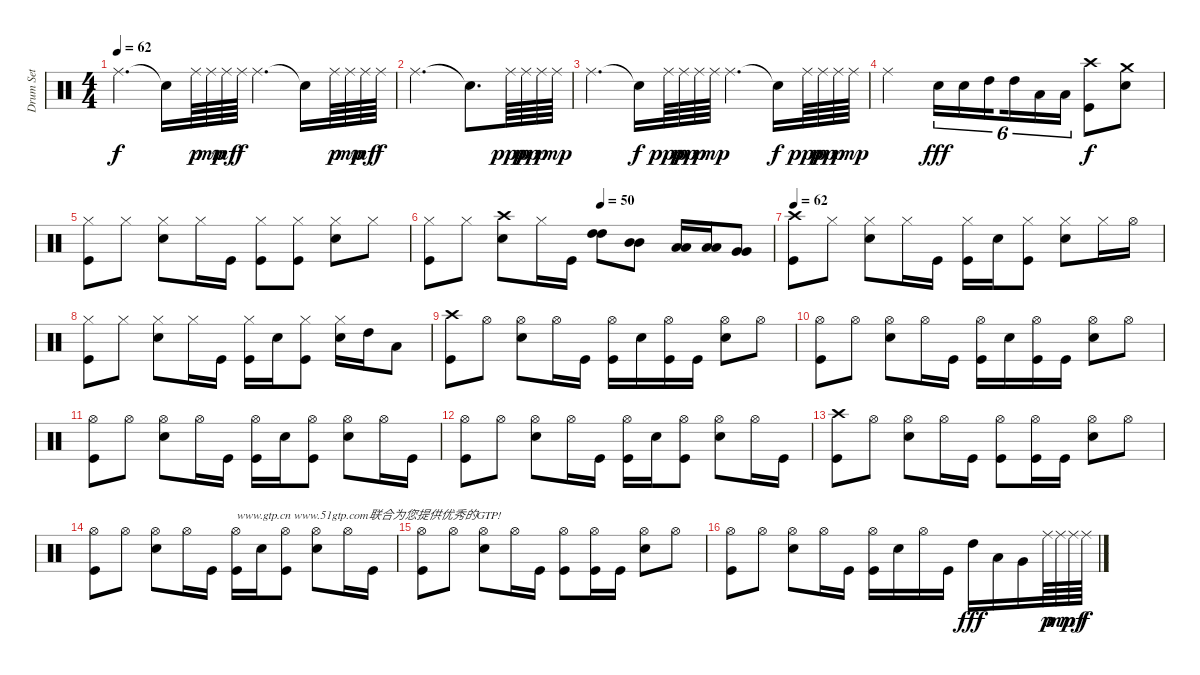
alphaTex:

\track ("Drum Set" "Drum Set") {instrument percussion}
\staff {score}
\articulation defaults
\ts (4 4)
\tempo 62
\clef neutral
\ks c "Ride (middle)".4{d dy f} "Snare (hit)"{t}.16 "Ride (middle)".64{dy p} "Ride (middle)".64{dy mp} "Ride (middle)".64{dy mf} "Ride (middle)".64{dy f} "Ride (middle)".4{d} "Snare (hit)"{t}.16 "Ride (middle)".64{dy p} "Ride (middle)".64{dy mp} "Ride (middle)".64{dy mf} "Ride (middle)".64{dy f}
|
"Ride (middle)".2{d} "Snare (hit)"{t}.8{d} "Ride (middle)".64{dy ppp} "Ride (middle)".64{dy pp} "Ride (middle)".64{dy p} "Ride (middle)".64{dy mp} |
"Ride (middle)".4{d} "Snare (hit)"{t}.16{dy f} "Ride (middle)".64{dy ppp} "Ride (middle)".64{dy pp} "Ride (middle)".64{dy p} "Ride (middle)".64{dy mp} "Ride (middle)".4{d} "Snare (hit)"{t}.16{dy f} "Ride (middle)".64{dy ppp} "Ride (middle)".64{dy pp} "Ride (middle)".64{dy p} "Ride (middle)".64{dy mp} |
"Ride (middle)".2 "Electric Snare (hit)".16{tu (6 4) dy fff} "Electric Snare (hit)".16{tu (6 4)} "High Tom (hit)".16{tu (6 4) beam splitsecondary} "High Tom (hit)".16{tu (6 4)} "Low Tom (hit)".16{tu (6 4)} "Low Tom (hit)".16{tu (6 4)} ("Crash high (hit)" "Kick (hit)").8{dy f} ("Crash medium (hit)" "Electric Snare (hit)").8 |
("Hi-Hat (closed)" "Kick (hit)").8 "Hi-Hat (closed)".8 ("Hi-Hat (closed)" "Electric Snare (hit)").8 "Hi-Hat (closed)".16 "Kick (hit)".16 ("Hi-Hat (closed)" "Kick (hit)").8 ("Hi-Hat (closed)" "Kick (hit)").8 ("Hi-Hat (closed)" "Electric Snare (hit)").8 "Hi-Hat (closed)".8 |
\tempo (50 0.5)
("Hi-Hat (closed)" "Kick (hit)").8 "Hi-Hat (closed)".8 ("Crash high (hit)" "Electric Snare (hit)").8 "Hi-Hat (closed)".16 "Kick (hit)".16 ("High Tom (hit)" "High Tom (hit)").8 ("Mid Tom (hit)" "Mid Tom (hit)").8 ("Low Tom (hit)" "Low Tom (hit)").16 ("Low Tom (hit)" "Low Tom (hit)").16 ("Very Low Tom (hit)" "Very Low Tom (hit)").8 |
\tempo 62
("Crash high (hit)" "Kick (hit)").8 "Hi-Hat (closed)".8 ("Hi-Hat (closed)" "Electric Snare (hit)").8 "Hi-Hat (closed)".16 "Kick (hit)".16 ("Hi-Hat (closed)" "Kick (hit)").16 "Electric Snare (hit)".16 ("Hi-Hat (closed)" "Kick (hit)").8 ("Hi-Hat (closed)" "Electric Snare (hit)").8 "Hi-Hat (closed)".16 "Hi-Hat (open)".16 |
("Hi-Hat (closed)" "Kick (hit)").8 "Hi-Hat (closed)".8 ("Hi-Hat (closed)" "Electric Snare (hit)").8 "Hi-Hat (closed)".16 "Kick (hit)".16 ("Hi-Hat (closed)" "Kick (hit)").16 "Electric Snare (hit)".16 ("Hi-Hat (closed)" "Kick (hit)").8 ("Hi-Hat (closed)" "Electric Snare (hit)").16 "High Tom (hit)".16 "Low Tom (hit)".8 |
("Crash high (hit)" "Kick (hit)").8 "Hi-Hat (open)".8 ("Hi-Hat (open)" "Electric Snare (hit)").8 "Hi-Hat (open)".16 "Kick (hit)".16 ("Hi-Hat (open)" "Kick (hit)").16 "Electric Snare (hit)".16 ("Hi-Hat (open)" "Kick (hit)").16 "Kick (hit)".16 ("Hi-Hat (open)" "Electric Snare (hit)").8 "Hi-Hat (open)".8 |
("Hi-Hat (open)" "Kick (hit)").8 "Hi-Hat (open)".8 ("Hi-Hat (open)" "Electric Snare (hit)").8 "Hi-Hat (open)".16 "Kick (hit)".16 ("Hi-Hat (open)" "Kick (hit)").16 "Electric Snare (hit)".16 ("Hi-Hat (open)" "Kick (hit)").16 "Kick (hit)".16 ("Hi-Hat (open)" "Electric Snare (hit)").8 "Hi-Hat (open)".8 |
("Hi-Hat (open)" "Kick (hit)").8 "Hi-Hat (open)".8 ("Hi-Hat (open)" "Electric Snare (hit)").8 "Hi-Hat (open)".16 "Kick (hit)".16 ("Hi-Hat (open)" "Kick (hit)").16 "Electric Snare (hit)".16 ("Hi-Hat (open)" "Kick (hit)").8 ("Hi-Hat (open)" "Electric Snare (hit)").8 "Hi-Hat (open)".16 "Kick (hit)".16 |
("Hi-Hat (open)" "Kick (hit)").8 "Hi-Hat (open)".8 ("Hi-Hat (open)" "Electric Snare (hit)").8 "Hi-Hat (open)".16 "Kick (hit)".16 ("Hi-Hat (open)" "Kick (hit)").16 "Electric Snare (hit)".16 ("Hi-Hat (open)" "Kick (hit)").8 ("Hi-Hat (open)" "Electric Snare (hit)").8 "Hi-Hat (open)".16 "Kick (hit)".16 |
("Crash high (hit)" "Kick (hit)").8 "Hi-Hat (open)".8 ("Hi-Hat (open)" "Electric Snare (hit)").8 "Hi-Hat (open)".16 "Kick (hit)".16 ("Hi-Hat (open)" "Kick (hit)").8 ("Hi-Hat (open)" "Kick (hit)").16 "Kick (hit)".16 ("Hi-Hat (open)" "Electric Snare (hit)").8 "Hi-Hat (open)".8 |
("Hi-Hat (open)" "Kick (hit)").8 "Hi-Hat (open)".8 ("Hi-Hat (open)" "Electric Snare (hit)").8 "Hi-Hat (open)".16 "Kick (hit)".16 ("Hi-Hat (open)" "Kick (hit)").16{txt "www.gtp.cn www.51gtp.com联合为您提供优秀的GTP!"} "Electric Snare (hit)".16 ("Hi-Hat (open)" "Kick (hit)").8 ("Hi-Hat (open)" "Electric Snare (hit)").8 "Hi-Hat (open)".16 "Kick (hit)".16 |
("Hi-Hat (open)" "Kick (hit)").8 "Hi-Hat (open)".8 ("Hi-Hat (open)" "Electric Snare (hit)").8 "Hi-Hat (open)".16 "Kick (hit)".16 ("Hi-Hat (open)" "Kick (hit)").8 ("Hi-Hat (open)" "Kick (hit)").16 "Kick (hit)".16 ("Hi-Hat (open)" "Electric Snare (hit)").8 "Hi-Hat (open)".8 |
("Hi-Hat (open)" "Kick (hit)").8 "Hi-Hat (open)".8 ("Hi-Hat (open)" "Electric Snare (hit)").8 "Hi-Hat (open)".16 "Kick (hit)".16 ("Hi-Hat (open)" "Kick (hit)").16 "Electric Snare (hit)".16 "Hi-Hat (open)".16 "Kick (hit)".16 "High Tom (hit)".16{dy fff} "Low Tom (hit)".16 "Very Low Tom (hit)".16 "Ride (middle)".64{dy p} "Ride (middle)".64{dy mp} "Ride (middle)".64{dy mf} "Ride (middle)".64{dy f}
